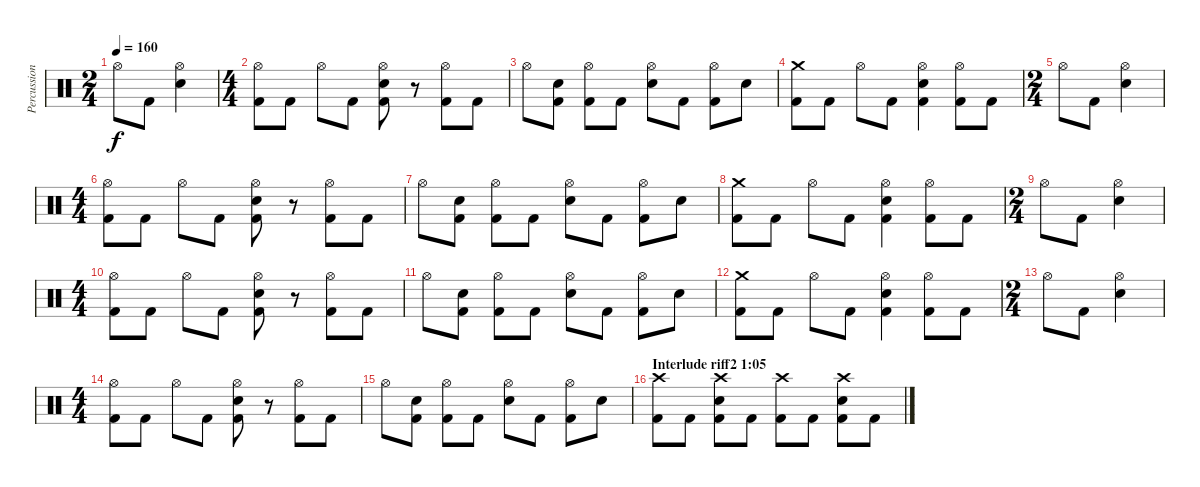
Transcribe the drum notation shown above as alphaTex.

\track ("Percussion" "Percussion") {instrument percussion}
\staff {score}
\articulation defaults
\ts (2 4)
\tempo 160
\clef neutral
\ks c "Hi-Hat (open)".8{dy f} "Kick (hit) 2".8
("Hi-Hat (open)" "Snare (hit) 2").4 |
\ts (4 4)
("Hi-Hat (open)" "Kick (hit) 2").8 "Kick (hit) 2".8 "Hi-Hat (open)".8 "Kick (hit) 2".8 ("Hi-Hat (open)" "Snare (hit) 2" "Kick (hit) 2").8 r.8 ("Hi-Hat (open)" "Kick (hit) 2").8 "Kick (hit) 2".8 |
"Hi-Hat (open)".8 ("Snare (hit) 2" "Kick (hit) 2").8 ("Hi-Hat (open)" "Kick (hit) 2").8 "Kick (hit) 2".8 ("Hi-Hat (open)" "Snare (hit) 2").8 "Kick (hit) 2".8 ("Hi-Hat (open)" "Kick (hit) 2").8 "Snare (hit) 2".8 |
("Crash medium (hit)" "Kick (hit) 2").8 "Kick (hit) 2".8 "Hi-Hat (open)".8 "Kick (hit) 2".8 ("Hi-Hat (open)" "Snare (hit) 2" "Kick (hit) 2").4 ("Hi-Hat (open)" "Kick (hit) 2").8 "Kick (hit) 2".8 |
\ts (2 4)
"Hi-Hat (open)".8 "Kick (hit) 2".8 ("Hi-Hat (open)" "Snare (hit) 2").4 |
\ts (4 4)
("Hi-Hat (open)" "Kick (hit) 2").8 "Kick (hit) 2".8 "Hi-Hat (open)".8 "Kick (hit) 2".8 ("Hi-Hat (open)" "Snare (hit) 2" "Kick (hit) 2").8 r.8 ("Hi-Hat (open)" "Kick (hit) 2").8 "Kick (hit) 2".8 |
"Hi-Hat (open)".8 ("Snare (hit) 2" "Kick (hit) 2").8 ("Hi-Hat (open)" "Kick (hit) 2").8 "Kick (hit) 2".8 ("Hi-Hat (open)" "Snare (hit) 2").8 "Kick (hit) 2".8 ("Hi-Hat (open)" "Kick (hit) 2").8 "Snare (hit) 2".8 |
("Crash medium (hit)" "Kick (hit) 2").8 "Kick (hit) 2".8 "Hi-Hat (open)".8 "Kick (hit) 2".8 ("Hi-Hat (open)" "Snare (hit) 2" "Kick (hit) 2").4 ("Hi-Hat (open)" "Kick (hit) 2").8 "Kick (hit) 2".8 |
\ts (2 4)
"Hi-Hat (open)".8 "Kick (hit) 2".8 ("Hi-Hat (open)" "Snare (hit) 2").4 |
\ts (4 4)
("Hi-Hat (open)" "Kick (hit) 2").8 "Kick (hit) 2".8 "Hi-Hat (open)".8 "Kick (hit) 2".8 ("Hi-Hat (open)" "Snare (hit) 2" "Kick (hit) 2").8 r.8 ("Hi-Hat (open)" "Kick (hit) 2").8 "Kick (hit) 2".8 |
"Hi-Hat (open)".8 ("Snare (hit) 2" "Kick (hit) 2").8 ("Hi-Hat (open)" "Kick (hit) 2").8 "Kick (hit) 2".8 ("Hi-Hat (open)" "Snare (hit) 2").8 "Kick (hit) 2".8 ("Hi-Hat (open)" "Kick (hit) 2").8 "Snare (hit) 2".8 |
("Crash medium (hit)" "Kick (hit) 2").8 "Kick (hit) 2".8 "Hi-Hat (open)".8 "Kick (hit) 2".8 ("Hi-Hat (open)" "Snare (hit) 2" "Kick (hit) 2").4 ("Hi-Hat (open)" "Kick (hit) 2").8 "Kick (hit) 2".8 |
\ts (2 4)
"Hi-Hat (open)".8 "Kick (hit) 2".8 ("Hi-Hat (open)" "Snare (hit) 2").4 |
\ts (4 4)
("Hi-Hat (open)" "Kick (hit) 2").8 "Kick (hit) 2".8 "Hi-Hat (open)".8 "Kick (hit) 2".8 ("Hi-Hat (open)" "Snare (hit) 2" "Kick (hit) 2").8 r.8 ("Hi-Hat (open)" "Kick (hit) 2").8 "Kick (hit) 2".8 |
"Hi-Hat (open)".8 ("Snare (hit) 2" "Kick (hit) 2").8 ("Hi-Hat (open)" "Kick (hit) 2").8 "Kick (hit) 2".8 ("Hi-Hat (open)" "Snare (hit) 2").8 "Kick (hit) 2".8 ("Hi-Hat (open)" "Kick (hit) 2").8 "Snare (hit) 2".8 |
\section ("" "Interlude riff2 1:05")
("Crash high (hit)" "Kick (hit) 2").8 "Kick (hit) 2".8 ("Crash high (hit)" "Snare (hit) 2" "Kick (hit) 2").8 "Kick (hit) 2".8 ("Crash high (hit)" "Kick (hit) 2").8 "Kick (hit) 2".8 ("Crash high (hit)" "Snare (hit) 2" "Kick (hit) 2").8 "Kick (hit) 2".8
